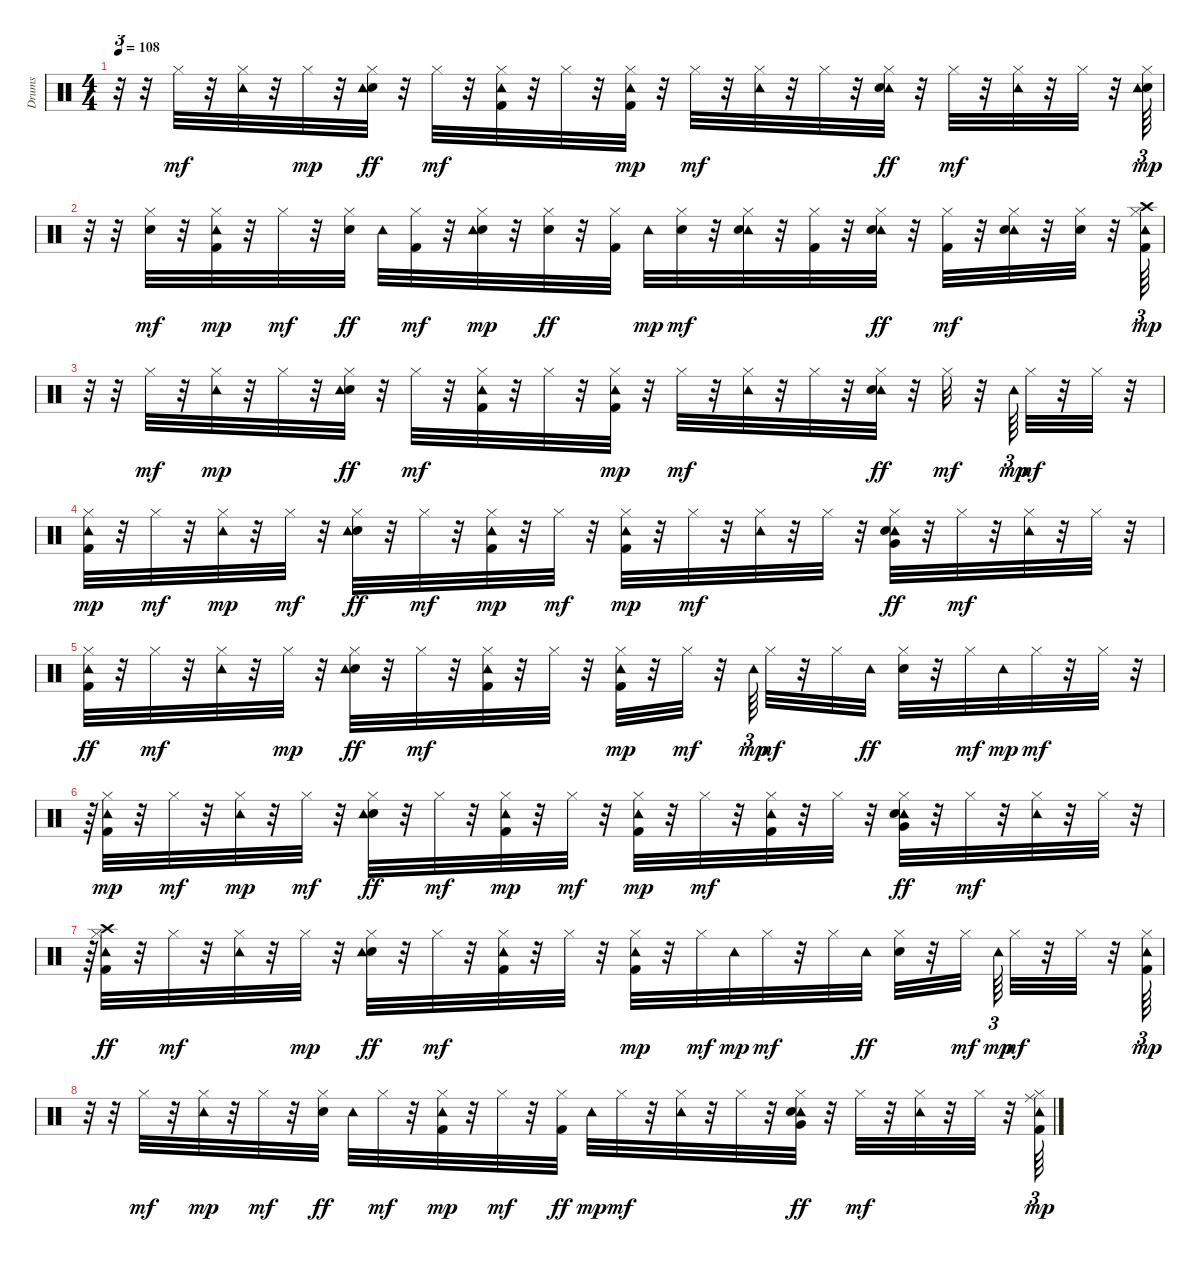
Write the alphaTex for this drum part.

\track ("Drums               " "Drums     ") {instrument percussion}
\staff {score}
\articulation defaults
\ts (4 4)
\tempo 108
\clef neutral
\ks c
r.32{tu (3 2) dy ff} r.32 "Hi-Hat (closed)".32{dy mf} r.32 ("Tambourine (hit)" "Hi-Hat (closed)").32 r.32 "Hi-Hat (closed)".32{dy mp} r.32 ("Snare (hit) 2" "Hi-Hat (closed)" "Tambourine (hit)").32{dy ff} r.32 "Hi-Hat (closed)".32{dy mf} r.32 ("Tambourine (hit)" "Kick (hit) 2" "Hi-Hat (closed)").32 r.32 "Hi-Hat (closed)".32 r.32 ("Kick (hit) 2" "Hi-Hat (closed)" "Tambourine (hit)").32{dy mp} r.32 "Hi-Hat (closed)".32{dy mf} r.32 ("Tambourine (hit)" "Hi-Hat (closed)").32 r.32 "Hi-Hat (closed)".32 r.32 ("Tambourine (hit)" "Hi-Hat (closed)" "Snare (hit) 2").32{dy ff} r.32 "Hi-Hat (closed)".32{dy mf} r.32 ("Tambourine (hit)" "Hi-Hat (closed)").32 r.32 "Hi-Hat (closed)".32 r.32 ("Snare (hit) 2" "Hi-Hat (closed)" "Tambourine (hit)").64{tu (3 2) dy mp} |
r.32{tu (3 2)} r.32 ("Snare (hit) 2" "Hi-Hat (closed)").32{dy mf} r.32 ("Kick (hit) 2" "Hi-Hat (closed)" "Tambourine (hit)").32{dy mp} r.32 "Hi-Hat (closed)".32{dy mf} r.32 ("Snare (hit) 2" "Hi-Hat (closed)").32{dy ff} "Tambourine (hit)".32 ("Kick (hit) 2" "Hi-Hat (closed)").32{dy mf} r.32 ("Snare (hit) 2" "Hi-Hat (closed)" "Tambourine (hit)").32{dy mp} r.32 ("Hi-Hat (closed)" "Snare (hit) 2").32{dy ff} r.32 ("Kick (hit) 2" "Hi-Hat (closed)").32 "Tambourine (hit)".32{dy mp} ("Snare (hit) 2" "Hi-Hat (closed)").32{dy mf} r.32 ("Tambourine (hit)" "Snare (hit) 2" "Hi-Hat (closed)").32 r.32 ("Kick (hit) 2" "Hi-Hat (closed)").32 r.32 ("Tambourine (hit)" "Snare (hit) 2" "Hi-Hat (closed)").32{dy ff} r.32 ("Kick (hit) 2" "Hi-Hat (closed)").32{dy mf} r.32 ("Tambourine (hit)" "Snare (hit) 2" "Hi-Hat (closed)").32 r.32 ("Snare (hit) 2" "Hi-Hat (closed)").32 r.32 ("Kick (hit) 2" "Hi-Hat (closed)" "Crash high (hit)" "Tambourine (hit)").64{tu (3 2) dy mp} |
r.32{tu (3 2)} r.32 "Hi-Hat (closed)".32{dy mf} r.32 ("Hi-Hat (closed)" "Tambourine (hit)").32{dy mp} r.32 "Hi-Hat (closed)".32 r.32 ("Snare (hit) 2" "Hi-Hat (closed)" "Tambourine (hit)").32{dy ff} r.32 "Hi-Hat (closed)".32{dy mf} r.32 ("Tambourine (hit)" "Kick (hit) 2" "Hi-Hat (closed)").32 r.32 "Hi-Hat (closed)".32 r.32 ("Kick (hit) 2" "Hi-Hat (closed)" "Tambourine (hit)").32{dy mp} r.32 "Hi-Hat (closed)".32{dy mf} r.32 ("Tambourine (hit)" "Hi-Hat (closed)").32 r.32 "Hi-Hat (closed)".32 r.32 ("Tambourine (hit)" "Snare (hit) 2" "Hi-Hat (closed)").32{dy ff} r.32 "Hi-Hat (closed)".32{dy mf} r.32 "Tambourine (hit)".64{tu (3 2) dy mp} "Hi-Hat (closed)".32{dy mf} r.32 "Hi-Hat (closed)".32 r.32 |
("Kick (hit) 2" "Hi-Hat (closed)" "Tambourine (hit)").32{dy mp} r.32 "Hi-Hat (closed)".32{dy mf} r.32 ("Hi-Hat (closed)" "Tambourine (hit)").32{dy mp} r.32 "Hi-Hat (closed)".32{dy mf} r.32 ("Snare (hit) 2" "Hi-Hat (closed)" "Tambourine (hit)").32{dy ff} r.32 "Hi-Hat (closed)".32{dy mf} r.32 ("Kick (hit) 2" "Hi-Hat (closed)" "Tambourine (hit)").32{dy mp} r.32 "Hi-Hat (closed)".32{dy mf} r.32 ("Hi-Hat (closed)" "Kick (hit) 2" "Tambourine (hit)").32{dy mp} r.32 "Hi-Hat (closed)".32{dy mf} r.32 ("Tambourine (hit)" "Hi-Hat (closed)").32 r.32 "Hi-Hat (closed)".32 r.32 ("Tambourine (hit)" "Snare (hit) 2" "Very Low Tom (hit)" "Hi-Hat (closed)").32{dy ff} r.32 "Hi-Hat (closed)".32{dy mf} r.32 ("Tambourine (hit)" "Hi-Hat (closed)").32 r.32 "Hi-Hat (closed)".32 r.32 |
("Kick (hit) 2" "Tambourine (hit)" "Hi-Hat (closed)").32{dy ff} r.32 "Hi-Hat (closed)".32{dy mf} r.32 ("Tambourine (hit)" "Hi-Hat (closed)").32 r.32 "Hi-Hat (closed)".32{dy mp} r.32 ("Snare (hit) 2" "Hi-Hat (closed)" "Tambourine (hit)").32{dy ff} r.32 "Hi-Hat (closed)".32{dy mf} r.32 ("Tambourine (hit)" "Kick (hit) 2" "Hi-Hat (closed)").32 r.32 "Hi-Hat (closed)".32 r.32 ("Kick (hit) 2" "Hi-Hat (closed)" "Tambourine (hit)").32{dy mp} r.32 "Hi-Hat (closed)".32{dy mf} r.32 "Tambourine (hit)".64{tu (3 2) dy mp} "Hi-Hat (closed)".32{dy mf} r.32 "Hi-Hat (closed)".32 "Tambourine (hit)".32{dy ff} ("Snare (hit) 2" "Hi-Hat (closed)").32 r.32 "Hi-Hat (closed)".32{dy mf} "Tambourine (hit)".32{dy mp} "Hi-Hat (closed)".32{dy mf} r.32 "Hi-Hat (closed)".32 r.32{tu (3 2)} |
r.64{tu (3 2)} ("Kick (hit) 2" "Hi-Hat (closed)" "Tambourine (hit)").32{dy mp} r.32 "Hi-Hat (closed)".32{dy mf} r.32 ("Hi-Hat (closed)" "Tambourine (hit)").32{dy mp} r.32 "Hi-Hat (closed)".32{dy mf} r.32 ("Snare (hit) 2" "Hi-Hat (closed)" "Tambourine (hit)").32{dy ff} r.32 "Hi-Hat (closed)".32{dy mf} r.32 ("Kick (hit) 2" "Hi-Hat (closed)" "Tambourine (hit)").32{dy mp} r.32 "Hi-Hat (closed)".32{dy mf} r.32 ("Kick (hit) 2" "Hi-Hat (closed)" "Tambourine (hit)").32{dy mp} r.32 "Hi-Hat (closed)".32{dy mf} r.32 ("Tambourine (hit)" "Kick (hit) 2" "Hi-Hat (closed)").32 r.32 "Hi-Hat (closed)".32 r.32 ("Tambourine (hit)" "Snare (hit) 2" "Very Low Tom (hit)" "Hi-Hat (closed)").32{dy ff} r.32 "Hi-Hat (closed)".32{dy mf} r.32 ("Tambourine (hit)" "Hi-Hat (closed)").32 r.32 "Hi-Hat (closed)".32 r.32{tu (3 2)} |
r.64{tu (3 2)} ("Kick (hit) 2" "Crash high (hit)" "Tambourine (hit)" "Hi-Hat (closed)").32{dy ff} r.32 "Hi-Hat (closed)".32{dy mf} r.32 ("Tambourine (hit)" "Hi-Hat (closed)").32 r.32 "Hi-Hat (closed)".32{dy mp} r.32 ("Hi-Hat (closed)" "Snare (hit) 2" "Tambourine (hit)").32{dy ff} r.32 "Hi-Hat (closed)".32{dy mf} r.32 ("Tambourine (hit)" "Kick (hit) 2" "Hi-Hat (closed)").32 r.32 "Hi-Hat (closed)".32 r.32 ("Kick (hit) 2" "Hi-Hat (closed)" "Tambourine (hit)").32{dy mp} r.32 "Hi-Hat (closed)".32{dy mf} "Tambourine (hit)".32{dy mp} "Hi-Hat (closed)".32{dy mf} r.32 "Hi-Hat (closed)".32 "Tambourine (hit)".32{dy ff} ("Snare (hit) 2" "Hi-Hat (closed)").32 r.32 "Hi-Hat (closed)".32{dy mf beam splitsecondary} "Tambourine (hit)".64{tu (3 2) dy mp} "Hi-Hat (closed)".32{dy mf} r.32 "Hi-Hat (closed)".32 r.32 ("Kick (hit) 2" "Hi-Hat (closed)" "Tambourine (hit)").64{tu (3 2) dy mp} |
r.32{tu (3 2)} r.32 "Hi-Hat (closed)".32{dy mf} r.32 ("Hi-Hat (closed)" "Tambourine (hit)").32{dy mp} r.32 "Hi-Hat (closed)".32{dy mf} r.32 ("Snare (hit) 2" "Hi-Hat (closed)").32{dy ff} "Tambourine (hit)".32 "Hi-Hat (closed)".32{dy mf} r.32 ("Kick (hit) 2" "Hi-Hat (closed)" "Tambourine (hit)").32{dy mp} r.32 "Hi-Hat (closed)".32{dy mf} r.32 ("Kick (hit) 2" "Hi-Hat (closed)").32{dy ff} "Tambourine (hit)".32{dy mp} "Hi-Hat (closed)".32{dy mf} r.32 ("Tambourine (hit)" "Hi-Hat (closed)").32 r.32 "Hi-Hat (closed)".32 r.32 ("Tambourine (hit)" "Snare (hit) 2" "Very Low Tom (hit)" "Hi-Hat (closed)").32{dy ff} r.32 "Hi-Hat (closed)".32{dy mf} r.32 ("Tambourine (hit)" "Hi-Hat (closed)").32 r.32 "Hi-Hat (closed)".32 r.32 ("Kick (hit) 2" "Hi-Hat (closed)" "Ride (middle)" "Tambourine (hit)").64{tu (3 2) dy mp}
